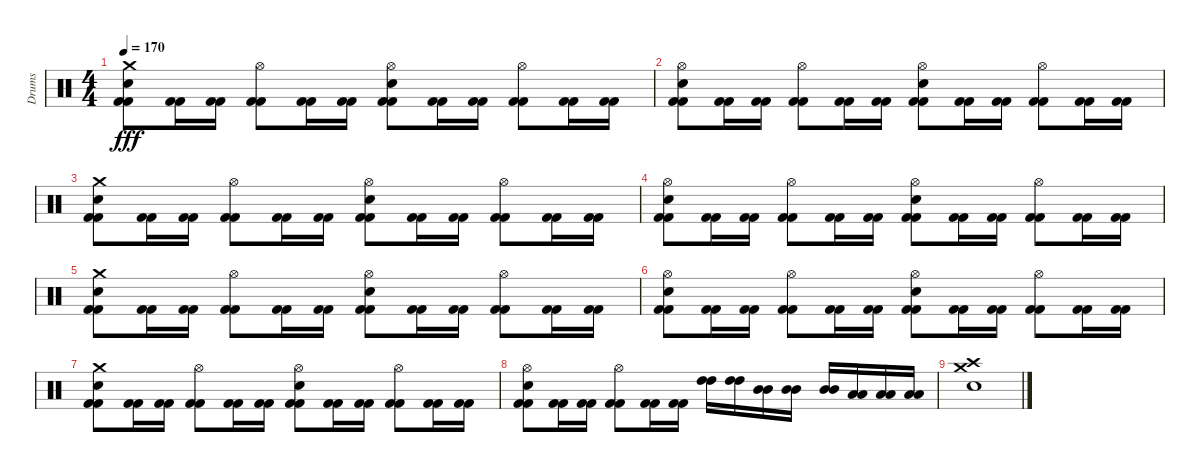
\track ("Drums" "Drums") {instrument percussion}
\staff {score}
\articulation defaults
\ts (4 4)
\tempo 170
\clef neutral
\ks c
("Crash medium (hit)" "Electric Snare (hit)" "Kick (hit) 2" "Kick (hit) 2").8{dy fff} ("Kick (hit) 2" "Kick (hit) 2").16 ("Kick (hit) 2" "Kick (hit) 2").16 ("Hi-Hat (open)" "Kick (hit) 2" "Kick (hit) 2").8 ("Kick (hit) 2" "Kick (hit) 2").16 ("Kick (hit) 2" "Kick (hit) 2").16 ("Hi-Hat (open)" "Electric Snare (hit)" "Kick (hit) 2" "Kick (hit) 2").8 ("Kick (hit) 2" "Kick (hit) 2").16 ("Kick (hit) 2" "Kick (hit) 2").16 ("Hi-Hat (open)" "Kick (hit) 2" "Kick (hit) 2").8 ("Kick (hit) 2" "Kick (hit) 2").16 ("Kick (hit) 2" "Kick (hit) 2").16 |
("Hi-Hat (open)" "Electric Snare (hit)" "Kick (hit) 2" "Kick (hit) 2").8 ("Kick (hit) 2" "Kick (hit) 2").16 ("Kick (hit) 2" "Kick (hit) 2").16 ("Hi-Hat (open)" "Kick (hit) 2" "Kick (hit) 2").8 ("Kick (hit) 2" "Kick (hit) 2").16 ("Kick (hit) 2" "Kick (hit) 2").16 ("Hi-Hat (open)" "Electric Snare (hit)" "Kick (hit) 2" "Kick (hit) 2").8 ("Kick (hit) 2" "Kick (hit) 2").16 ("Kick (hit) 2" "Kick (hit) 2").16 ("Hi-Hat (open)" "Kick (hit) 2" "Kick (hit) 2").8 ("Kick (hit) 2" "Kick (hit) 2").16 ("Kick (hit) 2" "Kick (hit) 2").16 |
("Crash medium (hit)" "Electric Snare (hit)" "Kick (hit) 2" "Kick (hit) 2").8 ("Kick (hit) 2" "Kick (hit) 2").16 ("Kick (hit) 2" "Kick (hit) 2").16 ("Hi-Hat (open)" "Kick (hit) 2" "Kick (hit) 2").8 ("Kick (hit) 2" "Kick (hit) 2").16 ("Kick (hit) 2" "Kick (hit) 2").16 ("Hi-Hat (open)" "Electric Snare (hit)" "Kick (hit) 2" "Kick (hit) 2").8 ("Kick (hit) 2" "Kick (hit) 2").16 ("Kick (hit) 2" "Kick (hit) 2").16 ("Hi-Hat (open)" "Kick (hit) 2" "Kick (hit) 2").8 ("Kick (hit) 2" "Kick (hit) 2").16 ("Kick (hit) 2" "Kick (hit) 2").16 |
("Hi-Hat (open)" "Electric Snare (hit)" "Kick (hit) 2" "Kick (hit) 2").8 ("Kick (hit) 2" "Kick (hit) 2").16 ("Kick (hit) 2" "Kick (hit) 2").16 ("Hi-Hat (open)" "Kick (hit) 2" "Kick (hit) 2").8 ("Kick (hit) 2" "Kick (hit) 2").16 ("Kick (hit) 2" "Kick (hit) 2").16 ("Hi-Hat (open)" "Electric Snare (hit)" "Kick (hit) 2" "Kick (hit) 2").8 ("Kick (hit) 2" "Kick (hit) 2").16 ("Kick (hit) 2" "Kick (hit) 2").16 ("Hi-Hat (open)" "Kick (hit) 2" "Kick (hit) 2").8 ("Kick (hit) 2" "Kick (hit) 2").16 ("Kick (hit) 2" "Kick (hit) 2").16 |
("Crash medium (hit)" "Electric Snare (hit)" "Kick (hit) 2" "Kick (hit) 2").8 ("Kick (hit) 2" "Kick (hit) 2").16 ("Kick (hit) 2" "Kick (hit) 2").16 ("Hi-Hat (open)" "Kick (hit) 2" "Kick (hit) 2").8 ("Kick (hit) 2" "Kick (hit) 2").16 ("Kick (hit) 2" "Kick (hit) 2").16 ("Hi-Hat (open)" "Electric Snare (hit)" "Kick (hit) 2" "Kick (hit) 2").8 ("Kick (hit) 2" "Kick (hit) 2").16 ("Kick (hit) 2" "Kick (hit) 2").16 ("Hi-Hat (open)" "Kick (hit) 2" "Kick (hit) 2").8 ("Kick (hit) 2" "Kick (hit) 2").16 ("Kick (hit) 2" "Kick (hit) 2").16 |
("Hi-Hat (open)" "Electric Snare (hit)" "Kick (hit) 2" "Kick (hit) 2").8 ("Kick (hit) 2" "Kick (hit) 2").16 ("Kick (hit) 2" "Kick (hit) 2").16 ("Hi-Hat (open)" "Kick (hit) 2" "Kick (hit) 2").8 ("Kick (hit) 2" "Kick (hit) 2").16 ("Kick (hit) 2" "Kick (hit) 2").16 ("Hi-Hat (open)" "Electric Snare (hit)" "Kick (hit) 2" "Kick (hit) 2").8 ("Kick (hit) 2" "Kick (hit) 2").16 ("Kick (hit) 2" "Kick (hit) 2").16 ("Hi-Hat (open)" "Kick (hit) 2" "Kick (hit) 2").8 ("Kick (hit) 2" "Kick (hit) 2").16 ("Kick (hit) 2" "Kick (hit) 2").16 |
("Crash medium (hit)" "Electric Snare (hit)" "Kick (hit) 2" "Kick (hit) 2").8 ("Kick (hit) 2" "Kick (hit) 2").16 ("Kick (hit) 2" "Kick (hit) 2").16 ("Hi-Hat (open)" "Kick (hit) 2" "Kick (hit) 2").8 ("Kick (hit) 2" "Kick (hit) 2").16 ("Kick (hit) 2" "Kick (hit) 2").16 ("Hi-Hat (open)" "Electric Snare (hit)" "Kick (hit) 2" "Kick (hit) 2").8 ("Kick (hit) 2" "Kick (hit) 2").16 ("Kick (hit) 2" "Kick (hit) 2").16 ("Hi-Hat (open)" "Kick (hit) 2" "Kick (hit) 2").8 ("Kick (hit) 2" "Kick (hit) 2").16 ("Kick (hit) 2" "Kick (hit) 2").16 |
("Hi-Hat (open)" "Electric Snare (hit)" "Kick (hit) 2" "Kick (hit) 2").8 ("Kick (hit) 2" "Kick (hit) 2").16 ("Kick (hit) 2" "Kick (hit) 2").16 ("Hi-Hat (open)" "Kick (hit) 2" "Kick (hit) 2").8 ("Kick (hit) 2" "Kick (hit) 2").16 ("Kick (hit) 2" "Kick (hit) 2").16 ("High Tom (hit)" "High Tom (hit)").16 ("High Tom (hit)" "High Tom (hit)").16 ("Mid Tom (hit)" "Mid Tom (hit)").16 ("Mid Tom (hit)" "Mid Tom (hit)").16 ("Mid Tom (hit)" "Mid Tom (hit)").16 ("Low Tom (hit)" "Low Tom (hit)").16 ("Low Tom (hit)" "Low Tom (hit)").16 ("Low Tom (hit)" "Low Tom (hit)").16 |
("Crash high (hit)" "Crash medium (hit)" "Electric Snare (hit)").1
